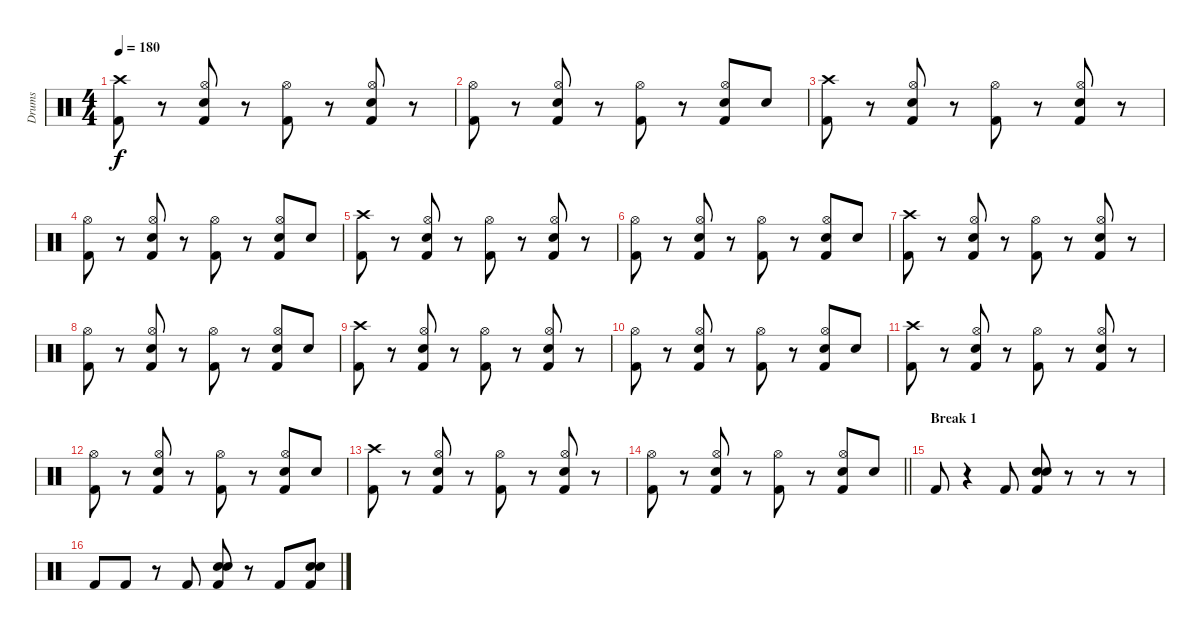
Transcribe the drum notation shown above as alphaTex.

\track ("Drums" "Drums") {instrument percussion}
\staff {score}
\articulation defaults
\ts (4 4)
\tempo 180
\clef neutral
\ks c
("Kick (hit) 2" "Crash high (hit)").8{dy f} r.8 ("Hi-Hat (open)" "Kick (hit) 2" "Snare (hit) 2").8 r.8 ("Hi-Hat (open)" "Kick (hit) 2").8 r.8 ("Hi-Hat (open)" "Kick (hit) 2" "Snare (hit) 2").8 r.8 |
("Kick (hit) 2" "Hi-Hat (open)").8 r.8 ("Hi-Hat (open)" "Kick (hit) 2" "Snare (hit) 2").8 r.8 ("Hi-Hat (open)" "Kick (hit) 2").8 r.8 ("Hi-Hat (open)" "Kick (hit) 2" "Snare (hit) 2").8 "Snare (hit) 2".8 |
("Kick (hit) 2" "Crash high (hit)").8 r.8 ("Hi-Hat (open)" "Kick (hit) 2" "Snare (hit) 2").8 r.8 ("Hi-Hat (open)" "Kick (hit) 2").8 r.8 ("Hi-Hat (open)" "Kick (hit) 2" "Snare (hit) 2").8 r.8 |
("Kick (hit) 2" "Hi-Hat (open)").8 r.8 ("Hi-Hat (open)" "Kick (hit) 2" "Snare (hit) 2").8 r.8 ("Hi-Hat (open)" "Kick (hit) 2").8 r.8 ("Hi-Hat (open)" "Kick (hit) 2" "Snare (hit) 2").8 "Snare (hit) 2".8 |
("Kick (hit) 2" "Crash high (hit)").8 r.8 ("Hi-Hat (open)" "Kick (hit) 2" "Snare (hit) 2").8 r.8 ("Hi-Hat (open)" "Kick (hit) 2").8 r.8 ("Hi-Hat (open)" "Kick (hit) 2" "Snare (hit) 2").8 r.8 |
("Kick (hit) 2" "Hi-Hat (open)").8 r.8 ("Hi-Hat (open)" "Kick (hit) 2" "Snare (hit) 2").8 r.8 ("Hi-Hat (open)" "Kick (hit) 2").8 r.8 ("Hi-Hat (open)" "Kick (hit) 2" "Snare (hit) 2").8 "Snare (hit) 2".8 |
("Kick (hit) 2" "Crash high (hit)").8 r.8 ("Hi-Hat (open)" "Kick (hit) 2" "Snare (hit) 2").8 r.8 ("Hi-Hat (open)" "Kick (hit) 2").8 r.8 ("Hi-Hat (open)" "Kick (hit) 2" "Snare (hit) 2").8 r.8 |
("Kick (hit) 2" "Hi-Hat (open)").8 r.8 ("Hi-Hat (open)" "Kick (hit) 2" "Snare (hit) 2").8 r.8 ("Hi-Hat (open)" "Kick (hit) 2").8 r.8 ("Hi-Hat (open)" "Kick (hit) 2" "Snare (hit) 2").8 "Snare (hit) 2".8 |
("Kick (hit) 2" "Crash high (hit)").8 r.8 ("Hi-Hat (open)" "Kick (hit) 2" "Snare (hit) 2").8 r.8 ("Hi-Hat (open)" "Kick (hit) 2").8 r.8 ("Hi-Hat (open)" "Kick (hit) 2" "Snare (hit) 2").8 r.8 |
("Kick (hit) 2" "Hi-Hat (open)").8 r.8 ("Hi-Hat (open)" "Kick (hit) 2" "Snare (hit) 2").8 r.8 ("Hi-Hat (open)" "Kick (hit) 2").8 r.8 ("Hi-Hat (open)" "Kick (hit) 2" "Snare (hit) 2").8 "Snare (hit) 2".8 |
("Kick (hit) 2" "Crash high (hit)").8 r.8 ("Hi-Hat (open)" "Kick (hit) 2" "Snare (hit) 2").8 r.8 ("Hi-Hat (open)" "Kick (hit) 2").8 r.8 ("Hi-Hat (open)" "Kick (hit) 2" "Snare (hit) 2").8 r.8 |
("Kick (hit) 2" "Hi-Hat (open)").8 r.8 ("Hi-Hat (open)" "Kick (hit) 2" "Snare (hit) 2").8 r.8 ("Hi-Hat (open)" "Kick (hit) 2").8 r.8 ("Hi-Hat (open)" "Kick (hit) 2" "Snare (hit) 2").8 "Snare (hit) 2".8 |
("Kick (hit) 2" "Crash high (hit)").8 r.8 ("Hi-Hat (open)" "Kick (hit) 2" "Snare (hit) 2").8 r.8 ("Hi-Hat (open)" "Kick (hit) 2").8 r.8 ("Hi-Hat (open)" "Kick (hit) 2" "Snare (hit) 2").8 r.8 |
\barLineRight lightlight
("Kick (hit) 2" "Hi-Hat (open)").8 r.8 ("Hi-Hat (open)" "Kick (hit) 2" "Snare (hit) 2").8 r.8 ("Hi-Hat (open)" "Kick (hit) 2").8 r.8 ("Hi-Hat (open)" "Kick (hit) 2" "Snare (hit) 2").8 "Snare (hit) 2".8 |
\section ("" "Break 1")
"Kick (hit) 2".8 r.4 "Kick (hit) 2".8 ("Kick (hit) 2" "Snare (hit) 2" "Electric Snare (hit)").8 r.8 r.8 r.8 |
"Kick (hit) 2".8 "Kick (hit) 2".8 r.8 "Kick (hit) 2".8 ("Kick (hit) 2" "Snare (hit) 2" "Electric Snare (hit)").8 r.8 "Kick (hit) 2".8 ("Kick (hit) 2" "Snare (hit) 2" "Electric Snare (hit)").8
